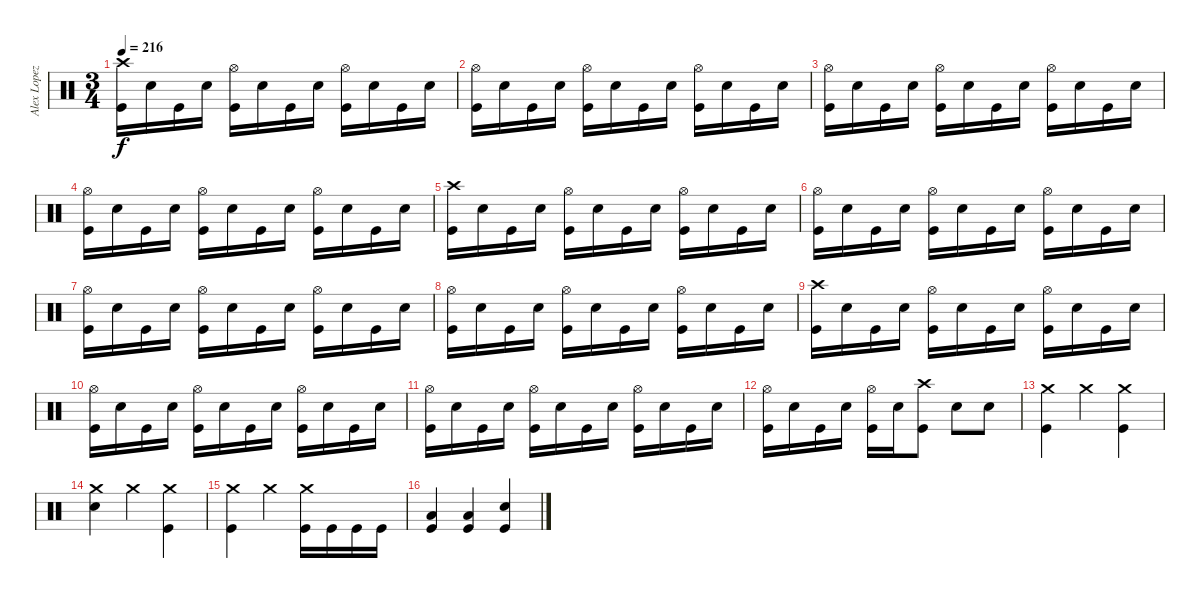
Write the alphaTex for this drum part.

\track ("Alex Lopez" "Alex Lopez") {instrument percussion}
\staff {score}
\articulation defaults
\ts (3 4)
\tempo 216
\clef neutral
\ks c
("Crash high (hit)" "Kick (hit)").16{dy f} "Electric Snare (hit)".16 "Kick (hit)".16 "Electric Snare (hit)".16 ("Hi-Hat (open)" "Kick (hit)").16 "Electric Snare (hit)".16 "Kick (hit)".16 "Electric Snare (hit)".16 ("Hi-Hat (open)" "Kick (hit)").16 "Electric Snare (hit)".16 "Kick (hit)".16 "Electric Snare (hit)".16 |
("Hi-Hat (open)" "Kick (hit)").16 "Electric Snare (hit)".16 "Kick (hit)".16 "Electric Snare (hit)".16 ("Hi-Hat (open)" "Kick (hit)").16 "Electric Snare (hit)".16 "Kick (hit)".16 "Electric Snare (hit)".16 ("Hi-Hat (open)" "Kick (hit)").16 "Electric Snare (hit)".16 "Kick (hit)".16 "Electric Snare (hit)".16 |
("Hi-Hat (open)" "Kick (hit)").16 "Electric Snare (hit)".16 "Kick (hit)".16 "Electric Snare (hit)".16 ("Hi-Hat (open)" "Kick (hit)").16 "Electric Snare (hit)".16 "Kick (hit)".16 "Electric Snare (hit)".16 ("Hi-Hat (open)" "Kick (hit)").16 "Electric Snare (hit)".16 "Kick (hit)".16 "Electric Snare (hit)".16 |
("Hi-Hat (open)" "Kick (hit)").16 "Electric Snare (hit)".16 "Kick (hit)".16 "Electric Snare (hit)".16 ("Hi-Hat (open)" "Kick (hit)").16 "Electric Snare (hit)".16 "Kick (hit)".16 "Electric Snare (hit)".16 ("Hi-Hat (open)" "Kick (hit)").16 "Electric Snare (hit)".16 "Kick (hit)".16 "Electric Snare (hit)".16 |
("Crash high (hit)" "Kick (hit)").16 "Electric Snare (hit)".16 "Kick (hit)".16 "Electric Snare (hit)".16 ("Hi-Hat (open)" "Kick (hit)").16 "Electric Snare (hit)".16 "Kick (hit)".16 "Electric Snare (hit)".16 ("Hi-Hat (open)" "Kick (hit)").16 "Electric Snare (hit)".16 "Kick (hit)".16 "Electric Snare (hit)".16 |
("Hi-Hat (open)" "Kick (hit)").16 "Electric Snare (hit)".16 "Kick (hit)".16 "Electric Snare (hit)".16 ("Hi-Hat (open)" "Kick (hit)").16 "Electric Snare (hit)".16 "Kick (hit)".16 "Electric Snare (hit)".16 ("Hi-Hat (open)" "Kick (hit)").16 "Electric Snare (hit)".16 "Kick (hit)".16 "Electric Snare (hit)".16 |
("Hi-Hat (open)" "Kick (hit)").16 "Electric Snare (hit)".16 "Kick (hit)".16 "Electric Snare (hit)".16 ("Hi-Hat (open)" "Kick (hit)").16 "Electric Snare (hit)".16 "Kick (hit)".16 "Electric Snare (hit)".16 ("Hi-Hat (open)" "Kick (hit)").16 "Electric Snare (hit)".16 "Kick (hit)".16 "Electric Snare (hit)".16 |
("Hi-Hat (open)" "Kick (hit)").16 "Electric Snare (hit)".16 "Kick (hit)".16 "Electric Snare (hit)".16 ("Hi-Hat (open)" "Kick (hit)").16 "Electric Snare (hit)".16 "Kick (hit)".16 "Electric Snare (hit)".16 ("Hi-Hat (open)" "Kick (hit)").16 "Electric Snare (hit)".16 "Kick (hit)".16 "Electric Snare (hit)".16 |
("Crash high (hit)" "Kick (hit)").16 "Electric Snare (hit)".16 "Kick (hit)".16 "Electric Snare (hit)".16 ("Hi-Hat (open)" "Kick (hit)").16 "Electric Snare (hit)".16 "Kick (hit)".16 "Electric Snare (hit)".16 ("Hi-Hat (open)" "Kick (hit)").16 "Electric Snare (hit)".16 "Kick (hit)".16 "Electric Snare (hit)".16 |
("Hi-Hat (open)" "Kick (hit)").16 "Electric Snare (hit)".16 "Kick (hit)".16 "Electric Snare (hit)".16 ("Hi-Hat (open)" "Kick (hit)").16 "Electric Snare (hit)".16 "Kick (hit)".16 "Electric Snare (hit)".16 ("Hi-Hat (open)" "Kick (hit)").16 "Electric Snare (hit)".16 "Kick (hit)".16 "Electric Snare (hit)".16 |
("Hi-Hat (open)" "Kick (hit)").16 "Electric Snare (hit)".16 "Kick (hit)".16 "Electric Snare (hit)".16 ("Hi-Hat (open)" "Kick (hit)").16 "Electric Snare (hit)".16 "Kick (hit)".16 "Electric Snare (hit)".16 ("Hi-Hat (open)" "Kick (hit)").16 "Electric Snare (hit)".16 "Kick (hit)".16 "Electric Snare (hit)".16 |
("Hi-Hat (open)" "Kick (hit)").16 "Electric Snare (hit)".16 "Kick (hit)".16 "Electric Snare (hit)".16 ("Hi-Hat (open)" "Kick (hit)").16 "Electric Snare (hit)".16 ("Crash high (hit)" "Kick (hit)").8 "Electric Snare (hit)".8 "Electric Snare (hit)".8 |
("Crash medium (hit)" "Kick (hit)").4 "Crash medium (hit)".4 ("Crash medium (hit)" "Kick (hit)").4 |
("Crash medium (hit)" "Electric Snare (hit)").4 "Crash medium (hit)".4 ("Crash medium (hit)" "Kick (hit)").4 |
("Crash medium (hit)" "Kick (hit)").4 "Crash medium (hit)".4 ("Crash medium (hit)" "Kick (hit)").16 "Kick (hit)".16 "Kick (hit)".16 "Kick (hit)".16 |
("Low Tom (hit)" "Kick (hit)").4 ("Low Floor Tom (hit)" "Kick (hit)").4 ("Electric Snare (hit)" "Kick (hit)").4
